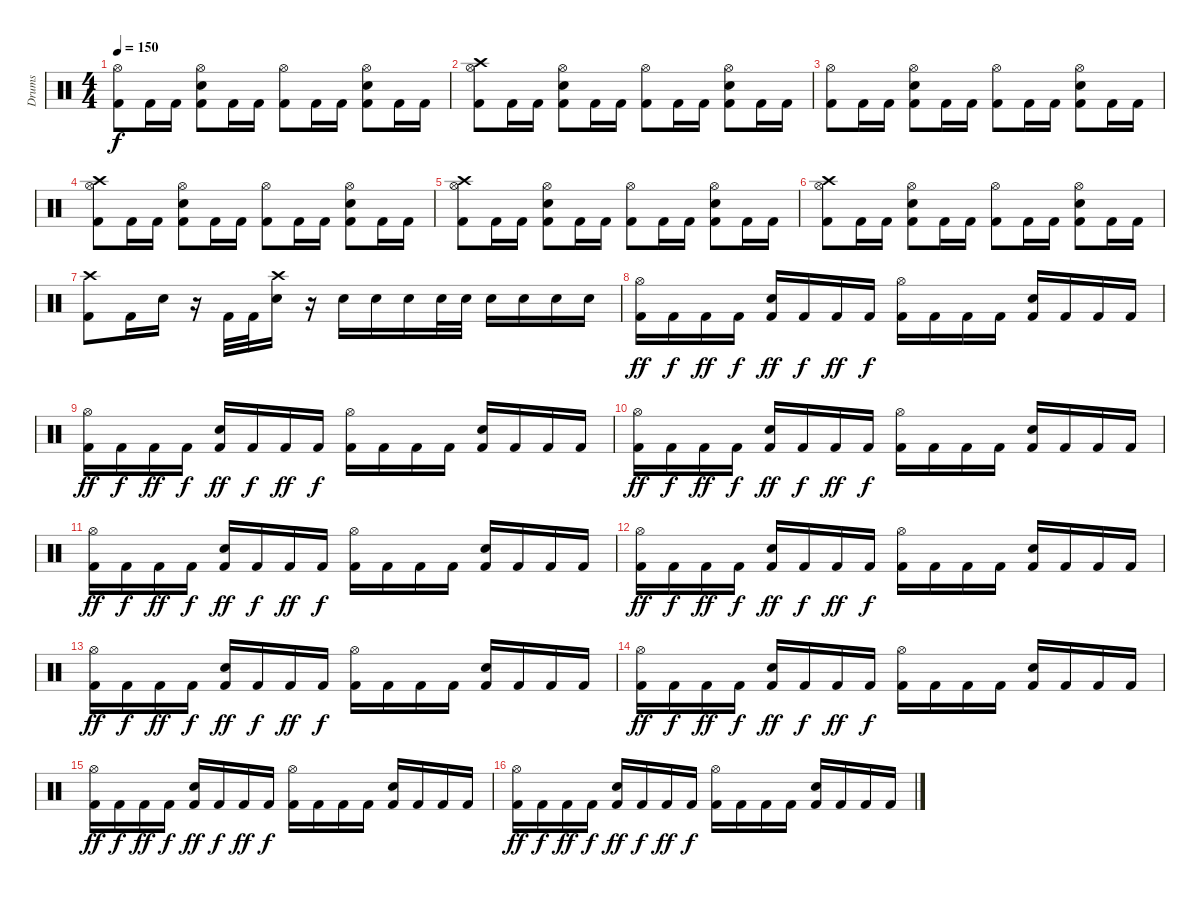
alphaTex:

\track ("Drums" "Drums") {instrument percussion}
\staff {score}
\articulation defaults
\ts (4 4)
\tempo 150
\clef neutral
\ks c
("Hi-Hat (open)" "Kick (hit) 2").8{dy f} "Kick (hit) 2".16 "Kick (hit) 2".16 ("Hi-Hat (open)" "Snare (hit) 2" "Kick (hit) 2").8 "Kick (hit) 2".16 "Kick (hit) 2".16 ("Hi-Hat (open)" "Kick (hit) 2").8 "Kick (hit) 2".16 "Kick (hit) 2".16 ("Hi-Hat (open)" "Snare (hit) 2" "Kick (hit) 2").8 "Kick (hit) 2".16 "Kick (hit) 2".16 |
("Crash high (hit)" "Hi-Hat (open)" "Kick (hit) 2").8 "Kick (hit) 2".16 "Kick (hit) 2".16 ("Hi-Hat (open)" "Snare (hit) 2" "Kick (hit) 2").8 "Kick (hit) 2".16 "Kick (hit) 2".16 ("Hi-Hat (open)" "Kick (hit) 2").8 "Kick (hit) 2".16 "Kick (hit) 2".16 ("Hi-Hat (open)" "Snare (hit) 2" "Kick (hit) 2").8 "Kick (hit) 2".16 "Kick (hit) 2".16 |
("Hi-Hat (open)" "Kick (hit) 2").8 "Kick (hit) 2".16 "Kick (hit) 2".16 ("Hi-Hat (open)" "Snare (hit) 2" "Kick (hit) 2").8 "Kick (hit) 2".16 "Kick (hit) 2".16 ("Hi-Hat (open)" "Kick (hit) 2").8 "Kick (hit) 2".16 "Kick (hit) 2".16 ("Hi-Hat (open)" "Snare (hit) 2" "Kick (hit) 2").8 "Kick (hit) 2".16 "Kick (hit) 2".16 |
("Crash high (hit)" "Hi-Hat (open)" "Kick (hit) 2").8 "Kick (hit) 2".16 "Kick (hit) 2".16 ("Hi-Hat (open)" "Snare (hit) 2" "Kick (hit) 2").8 "Kick (hit) 2".16 "Kick (hit) 2".16 ("Hi-Hat (open)" "Kick (hit) 2").8 "Kick (hit) 2".16 "Kick (hit) 2".16 ("Hi-Hat (open)" "Snare (hit) 2" "Kick (hit) 2").8 "Kick (hit) 2".16 "Kick (hit) 2".16 |
("Crash high (hit)" "Hi-Hat (open)" "Kick (hit) 2").8 "Kick (hit) 2".16 "Kick (hit) 2".16 ("Hi-Hat (open)" "Snare (hit) 2" "Kick (hit) 2").8 "Kick (hit) 2".16 "Kick (hit) 2".16 ("Hi-Hat (open)" "Kick (hit) 2").8 "Kick (hit) 2".16 "Kick (hit) 2".16 ("Hi-Hat (open)" "Snare (hit) 2" "Kick (hit) 2").8 "Kick (hit) 2".16 "Kick (hit) 2".16 |
("Crash high (hit)" "Hi-Hat (open)" "Kick (hit) 2").8 "Kick (hit) 2".16 "Kick (hit) 2".16 ("Hi-Hat (open)" "Snare (hit) 2" "Kick (hit) 2").8 "Kick (hit) 2".16 "Kick (hit) 2".16 ("Hi-Hat (open)" "Kick (hit) 2").8 "Kick (hit) 2".16 "Kick (hit) 2".16 ("Hi-Hat (open)" "Snare (hit) 2" "Kick (hit) 2").8 "Kick (hit) 2".16 "Kick (hit) 2".16 |
("Crash high (hit)" "Kick (hit) 2").8 "Kick (hit) 2".16 "Electric Snare (hit)".16 r.16 "Kick (hit) 2".32 "Kick (hit) 2".32 ("Crash high (hit)" "Electric Snare (hit)").16 r.16 "Electric Snare (hit)".16 "Electric Snare (hit)".16 "Electric Snare (hit)".16 "Electric Snare (hit)".32 "Electric Snare (hit)".32 "Electric Snare (hit)".16 "Electric Snare (hit)".16 "Electric Snare (hit)".16 "Electric Snare (hit)".16 |
("Kick (hit) 2" "Hi-Hat (open)").16{dy ff} "Kick (hit) 2".16{dy f} "Kick (hit) 2".16{dy ff} "Kick (hit) 2".16{dy f} ("Kick (hit) 2" "Snare (hit) 2").16{dy ff} "Kick (hit) 2".16{dy f} "Kick (hit) 2".16{dy ff} "Kick (hit) 2".16{dy f} ("Kick (hit) 2" "Hi-Hat (open)").16 "Kick (hit) 2".16 "Kick (hit) 2".16 "Kick (hit) 2".16 ("Kick (hit) 2" "Snare (hit) 2").16 "Kick (hit) 2".16 "Kick (hit) 2".16 "Kick (hit) 2".16 |
("Kick (hit) 2" "Hi-Hat (open)").16{dy ff} "Kick (hit) 2".16{dy f} "Kick (hit) 2".16{dy ff} "Kick (hit) 2".16{dy f} ("Kick (hit) 2" "Snare (hit) 2").16{dy ff} "Kick (hit) 2".16{dy f} "Kick (hit) 2".16{dy ff} "Kick (hit) 2".16{dy f} ("Kick (hit) 2" "Hi-Hat (open)").16 "Kick (hit) 2".16 "Kick (hit) 2".16 "Kick (hit) 2".16 ("Kick (hit) 2" "Snare (hit) 2").16 "Kick (hit) 2".16 "Kick (hit) 2".16 "Kick (hit) 2".16 |
("Kick (hit) 2" "Hi-Hat (open)").16{dy ff} "Kick (hit) 2".16{dy f} "Kick (hit) 2".16{dy ff} "Kick (hit) 2".16{dy f} ("Kick (hit) 2" "Snare (hit) 2").16{dy ff} "Kick (hit) 2".16{dy f} "Kick (hit) 2".16{dy ff} "Kick (hit) 2".16{dy f} ("Kick (hit) 2" "Hi-Hat (open)").16 "Kick (hit) 2".16 "Kick (hit) 2".16 "Kick (hit) 2".16 ("Kick (hit) 2" "Snare (hit) 2").16 "Kick (hit) 2".16 "Kick (hit) 2".16 "Kick (hit) 2".16 |
("Kick (hit) 2" "Hi-Hat (open)").16{dy ff} "Kick (hit) 2".16{dy f} "Kick (hit) 2".16{dy ff} "Kick (hit) 2".16{dy f} ("Kick (hit) 2" "Snare (hit) 2").16{dy ff} "Kick (hit) 2".16{dy f} "Kick (hit) 2".16{dy ff} "Kick (hit) 2".16{dy f} ("Kick (hit) 2" "Hi-Hat (open)").16 "Kick (hit) 2".16 "Kick (hit) 2".16 "Kick (hit) 2".16 ("Kick (hit) 2" "Snare (hit) 2").16 "Kick (hit) 2".16 "Kick (hit) 2".16 "Kick (hit) 2".16 |
("Kick (hit) 2" "Hi-Hat (open)").16{dy ff} "Kick (hit) 2".16{dy f} "Kick (hit) 2".16{dy ff} "Kick (hit) 2".16{dy f} ("Kick (hit) 2" "Snare (hit) 2").16{dy ff} "Kick (hit) 2".16{dy f} "Kick (hit) 2".16{dy ff} "Kick (hit) 2".16{dy f} ("Kick (hit) 2" "Hi-Hat (open)").16 "Kick (hit) 2".16 "Kick (hit) 2".16 "Kick (hit) 2".16 ("Kick (hit) 2" "Snare (hit) 2").16 "Kick (hit) 2".16 "Kick (hit) 2".16 "Kick (hit) 2".16 |
("Kick (hit) 2" "Hi-Hat (open)").16{dy ff} "Kick (hit) 2".16{dy f} "Kick (hit) 2".16{dy ff} "Kick (hit) 2".16{dy f} ("Kick (hit) 2" "Snare (hit) 2").16{dy ff} "Kick (hit) 2".16{dy f} "Kick (hit) 2".16{dy ff} "Kick (hit) 2".16{dy f} ("Kick (hit) 2" "Hi-Hat (open)").16 "Kick (hit) 2".16 "Kick (hit) 2".16 "Kick (hit) 2".16 ("Kick (hit) 2" "Snare (hit) 2").16 "Kick (hit) 2".16 "Kick (hit) 2".16 "Kick (hit) 2".16 |
("Kick (hit) 2" "Hi-Hat (open)").16{dy ff} "Kick (hit) 2".16{dy f} "Kick (hit) 2".16{dy ff} "Kick (hit) 2".16{dy f} ("Kick (hit) 2" "Snare (hit) 2").16{dy ff} "Kick (hit) 2".16{dy f} "Kick (hit) 2".16{dy ff} "Kick (hit) 2".16{dy f} ("Kick (hit) 2" "Hi-Hat (open)").16 "Kick (hit) 2".16 "Kick (hit) 2".16 "Kick (hit) 2".16 ("Kick (hit) 2" "Snare (hit) 2").16 "Kick (hit) 2".16 "Kick (hit) 2".16 "Kick (hit) 2".16 |
("Kick (hit) 2" "Hi-Hat (open)").16{dy ff} "Kick (hit) 2".16{dy f} "Kick (hit) 2".16{dy ff} "Kick (hit) 2".16{dy f} ("Kick (hit) 2" "Snare (hit) 2").16{dy ff} "Kick (hit) 2".16{dy f} "Kick (hit) 2".16{dy ff} "Kick (hit) 2".16{dy f} ("Kick (hit) 2" "Hi-Hat (open)").16 "Kick (hit) 2".16 "Kick (hit) 2".16 "Kick (hit) 2".16 ("Kick (hit) 2" "Snare (hit) 2").16 "Kick (hit) 2".16 "Kick (hit) 2".16 "Kick (hit) 2".16 |
("Kick (hit) 2" "Hi-Hat (open)").16{dy ff} "Kick (hit) 2".16{dy f} "Kick (hit) 2".16{dy ff} "Kick (hit) 2".16{dy f} ("Kick (hit) 2" "Snare (hit) 2").16{dy ff} "Kick (hit) 2".16{dy f} "Kick (hit) 2".16{dy ff} "Kick (hit) 2".16{dy f} ("Kick (hit) 2" "Hi-Hat (open)").16 "Kick (hit) 2".16 "Kick (hit) 2".16 "Kick (hit) 2".16 ("Kick (hit) 2" "Snare (hit) 2").16 "Kick (hit) 2".16 "Kick (hit) 2".16 "Kick (hit) 2".16
